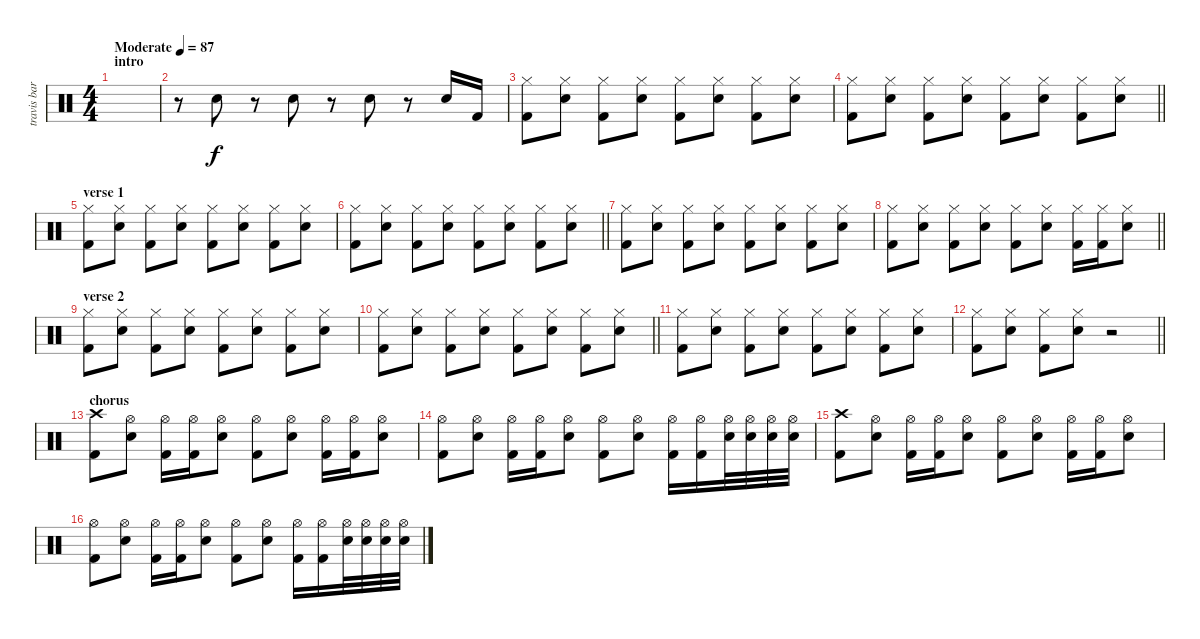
\track ("travis barker" "travis bar") {instrument percussion}
\staff {score}
\articulation defaults
\ts (4 4)
\section ("" "intro")
\tempo (87 "Moderate")
\clef neutral
\ks c
|
r.8 "Snare (hit) 2".8 r.8 "Snare (hit) 2".8 r.8 "Snare (hit) 2".8 r.8 "Snare (hit) 2".16 "Kick (hit) 2".16 |
("Hi-Hat (closed)" "Kick (hit) 2").8 ("Hi-Hat (closed)" "Snare (hit) 2").8 ("Hi-Hat (closed)" "Kick (hit) 2").8 ("Hi-Hat (closed)" "Snare (hit) 2").8 ("Hi-Hat (closed)" "Kick (hit) 2").8 ("Hi-Hat (closed)" "Snare (hit) 2").8 ("Hi-Hat (closed)" "Kick (hit) 2").8 ("Hi-Hat (closed)" "Snare (hit) 2").8 |
\barLineRight lightlight
("Hi-Hat (closed)" "Kick (hit) 2").8 ("Hi-Hat (closed)" "Snare (hit) 2").8 ("Hi-Hat (closed)" "Kick (hit) 2").8 ("Hi-Hat (closed)" "Snare (hit) 2").8 ("Hi-Hat (closed)" "Kick (hit) 2").8 ("Hi-Hat (closed)" "Snare (hit) 2").8 ("Hi-Hat (closed)" "Kick (hit) 2").8 ("Hi-Hat (closed)" "Snare (hit) 2").8 |
\section ("" "verse 1")
("Hi-Hat (closed)" "Kick (hit) 2").8 ("Hi-Hat (closed)" "Snare (hit) 2").8 ("Hi-Hat (closed)" "Kick (hit) 2").8 ("Hi-Hat (closed)" "Snare (hit) 2").8 ("Hi-Hat (closed)" "Kick (hit) 2").8 ("Hi-Hat (closed)" "Snare (hit) 2").8 ("Hi-Hat (closed)" "Kick (hit) 2").8 ("Hi-Hat (closed)" "Snare (hit) 2").8 |
\barLineRight lightlight
("Hi-Hat (closed)" "Kick (hit) 2").8 ("Hi-Hat (closed)" "Snare (hit) 2").8 ("Hi-Hat (closed)" "Kick (hit) 2").8 ("Hi-Hat (closed)" "Snare (hit) 2").8 ("Hi-Hat (closed)" "Kick (hit) 2").8 ("Hi-Hat (closed)" "Snare (hit) 2").8 ("Hi-Hat (closed)" "Kick (hit) 2").8 ("Hi-Hat (closed)" "Snare (hit) 2").8 |
("Hi-Hat (closed)" "Kick (hit) 2").8 ("Hi-Hat (closed)" "Snare (hit) 2").8 ("Hi-Hat (closed)" "Kick (hit) 2").8 ("Hi-Hat (closed)" "Snare (hit) 2").8 ("Hi-Hat (closed)" "Kick (hit) 2").8 ("Hi-Hat (closed)" "Snare (hit) 2").8 ("Hi-Hat (closed)" "Kick (hit) 2").8 ("Hi-Hat (closed)" "Snare (hit) 2").8 |
\barLineRight lightlight
("Hi-Hat (closed)" "Kick (hit) 2").8 ("Hi-Hat (closed)" "Snare (hit) 2").8 ("Hi-Hat (closed)" "Kick (hit) 2").8 ("Hi-Hat (closed)" "Snare (hit) 2").8 ("Hi-Hat (closed)" "Kick (hit) 2").8 ("Hi-Hat (closed)" "Snare (hit) 2").8 ("Hi-Hat (closed)" "Kick (hit) 2").16 ("Hi-Hat (closed)" "Kick (hit) 2").16 ("Hi-Hat (closed)" "Snare (hit) 2").8 |
\section ("" "verse 2")
("Hi-Hat (closed)" "Kick (hit) 2").8 ("Hi-Hat (closed)" "Snare (hit) 2").8 ("Hi-Hat (closed)" "Kick (hit) 2").8 ("Hi-Hat (closed)" "Snare (hit) 2").8 ("Hi-Hat (closed)" "Kick (hit) 2").8 ("Hi-Hat (closed)" "Snare (hit) 2").8 ("Hi-Hat (closed)" "Kick (hit) 2").8 ("Hi-Hat (closed)" "Snare (hit) 2").8 |
\barLineRight lightlight
("Hi-Hat (closed)" "Kick (hit) 2").8 ("Hi-Hat (closed)" "Snare (hit) 2").8 ("Hi-Hat (closed)" "Kick (hit) 2").8 ("Hi-Hat (closed)" "Snare (hit) 2").8 ("Hi-Hat (closed)" "Kick (hit) 2").8 ("Hi-Hat (closed)" "Snare (hit) 2").8 ("Hi-Hat (closed)" "Kick (hit) 2").8 ("Hi-Hat (closed)" "Snare (hit) 2").8 |
("Hi-Hat (closed)" "Kick (hit) 2").8 ("Hi-Hat (closed)" "Snare (hit) 2").8 ("Hi-Hat (closed)" "Kick (hit) 2").8 ("Hi-Hat (closed)" "Snare (hit) 2").8 ("Hi-Hat (closed)" "Kick (hit) 2").8 ("Hi-Hat (closed)" "Snare (hit) 2").8 ("Hi-Hat (closed)" "Kick (hit) 2").8 ("Hi-Hat (closed)" "Snare (hit) 2").8 |
\barLineRight lightlight
("Hi-Hat (closed)" "Kick (hit) 2").8 ("Hi-Hat (closed)" "Snare (hit) 2").8 ("Hi-Hat (closed)" "Kick (hit) 2").8 ("Hi-Hat (closed)" "Snare (hit) 2").8 r.2 |
\section ("" "chorus")
("Crash high (hit)" "Kick (hit) 2").8 ("Hi-Hat (open)" "Snare (hit) 2").8 ("Hi-Hat (open)" "Kick (hit) 2").16 ("Hi-Hat (open)" "Kick (hit) 2").16 ("Hi-Hat (open)" "Snare (hit) 2").8 ("Hi-Hat (open)" "Kick (hit) 2").8 ("Hi-Hat (open)" "Snare (hit) 2").8 ("Hi-Hat (open)" "Kick (hit) 2").16 ("Hi-Hat (open)" "Kick (hit) 2").16 ("Hi-Hat (open)" "Snare (hit) 2").8 |
("Hi-Hat (open)" "Kick (hit) 2").8 ("Hi-Hat (open)" "Snare (hit) 2").8 ("Hi-Hat (open)" "Kick (hit) 2").16 ("Hi-Hat (open)" "Kick (hit) 2").16 ("Hi-Hat (open)" "Snare (hit) 2").8 ("Hi-Hat (open)" "Kick (hit) 2").8 ("Hi-Hat (open)" "Snare (hit) 2").8 ("Hi-Hat (open)" "Kick (hit) 2").16 ("Hi-Hat (open)" "Kick (hit) 2").16 ("Hi-Hat (open)" "Snare (hit) 2").32 ("Hi-Hat (open)" "Snare (hit) 2").32 ("Hi-Hat (open)" "Snare (hit) 2").32 ("Hi-Hat (open)" "Snare (hit) 2").32 |
("Crash high (hit)" "Kick (hit) 2").8 ("Hi-Hat (open)" "Snare (hit) 2").8 ("Hi-Hat (open)" "Kick (hit) 2").16 ("Hi-Hat (open)" "Kick (hit) 2").16 ("Hi-Hat (open)" "Snare (hit) 2").8 ("Hi-Hat (open)" "Kick (hit) 2").8 ("Hi-Hat (open)" "Snare (hit) 2").8 ("Hi-Hat (open)" "Kick (hit) 2").16 ("Hi-Hat (open)" "Kick (hit) 2").16 ("Hi-Hat (open)" "Snare (hit) 2").8 |
("Hi-Hat (open)" "Kick (hit) 2").8 ("Hi-Hat (open)" "Snare (hit) 2").8 ("Hi-Hat (open)" "Kick (hit) 2").16 ("Hi-Hat (open)" "Kick (hit) 2").16 ("Hi-Hat (open)" "Snare (hit) 2").8 ("Hi-Hat (open)" "Kick (hit) 2").8 ("Hi-Hat (open)" "Snare (hit) 2").8 ("Hi-Hat (open)" "Kick (hit) 2").16 ("Hi-Hat (open)" "Kick (hit) 2").16 ("Hi-Hat (open)" "Snare (hit) 2").32 ("Hi-Hat (open)" "Snare (hit) 2").32 ("Hi-Hat (open)" "Snare (hit) 2").32 ("Hi-Hat (open)" "Snare (hit) 2").32
